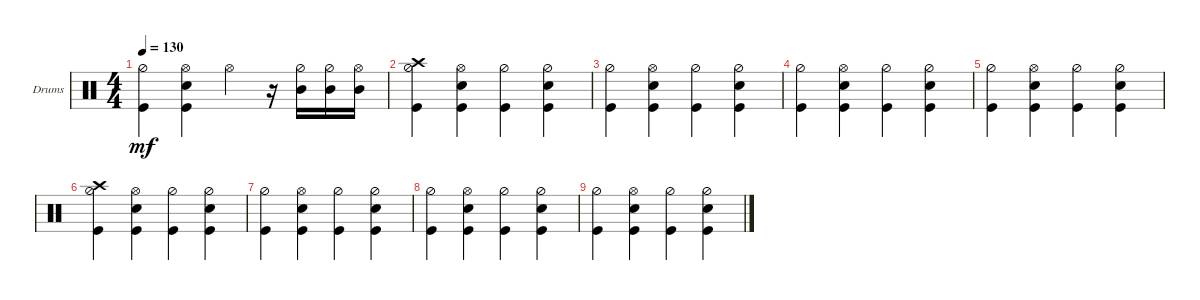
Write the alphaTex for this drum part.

\defaultSystemsLayout 4
\bracketExtendMode groupsimilarinstruments
\firstSystemTrackNameOrientation horizontal
\otherSystemsTrackNameOrientation horizontal
\track ("Drumkit" "Drums") {instrument percussion}
\staff {score}
\articulation defaults
\ts (4 4)
\tempo 130
\clef neutral
\ks c
("Hi-Hat (half)" "Kick (hit)").4{dy mf} ("Snare (hit) 2" "Hi-Hat (open)" "Kick (hit)").4 "Hi-Hat (open)".4 r.16 ("Mid Tom (hit)" "Hi-Hat (half)").16 ("Mid Tom (hit)" "Hi-Hat (half)").16 ("Mid Tom (hit)" "Hi-Hat (open)").16 |
("Hi-Hat (half)" "Kick (hit)" "Crash high (hit)").4 ("Snare (hit) 2" "Hi-Hat (open)" "Kick (hit)").4 ("Hi-Hat (half)" "Kick (hit)").4 ("Snare (hit) 2" "Hi-Hat (half)" "Kick (hit)").4 |
("Hi-Hat (half)" "Kick (hit)").4 ("Snare (hit) 2" "Hi-Hat (open)" "Kick (hit)").4 ("Hi-Hat (half)" "Kick (hit)").4 ("Snare (hit) 2" "Hi-Hat (half)" "Kick (hit)").4 |
("Hi-Hat (half)" "Kick (hit)").4 ("Snare (hit) 2" "Hi-Hat (open)" "Kick (hit)").4 ("Hi-Hat (half)" "Kick (hit)").4 ("Snare (hit) 2" "Hi-Hat (half)" "Kick (hit)").4 |
("Hi-Hat (half)" "Kick (hit)").4 ("Snare (hit) 2" "Hi-Hat (open)" "Kick (hit)").4 ("Hi-Hat (half)" "Kick (hit)").4 ("Snare (hit) 2" "Hi-Hat (half)" "Kick (hit)").4 |
("Hi-Hat (half)" "Kick (hit)" "Crash high (hit)").4 ("Snare (hit) 2" "Hi-Hat (open)" "Kick (hit)").4 ("Hi-Hat (half)" "Kick (hit)").4 ("Snare (hit) 2" "Hi-Hat (half)" "Kick (hit)").4 |
("Hi-Hat (half)" "Kick (hit)").4 ("Snare (hit) 2" "Hi-Hat (open)" "Kick (hit)").4 ("Hi-Hat (half)" "Kick (hit)").4 ("Snare (hit) 2" "Hi-Hat (half)" "Kick (hit)").4 |
("Hi-Hat (half)" "Kick (hit)").4 ("Snare (hit) 2" "Hi-Hat (open)" "Kick (hit)").4 ("Hi-Hat (half)" "Kick (hit)").4 ("Snare (hit) 2" "Hi-Hat (half)" "Kick (hit)").4 |
("Hi-Hat (half)" "Kick (hit)").4 ("Snare (hit) 2" "Hi-Hat (open)" "Kick (hit)").4 ("Hi-Hat (half)" "Kick (hit)").4 ("Snare (hit) 2" "Hi-Hat (half)" "Kick (hit)").4
